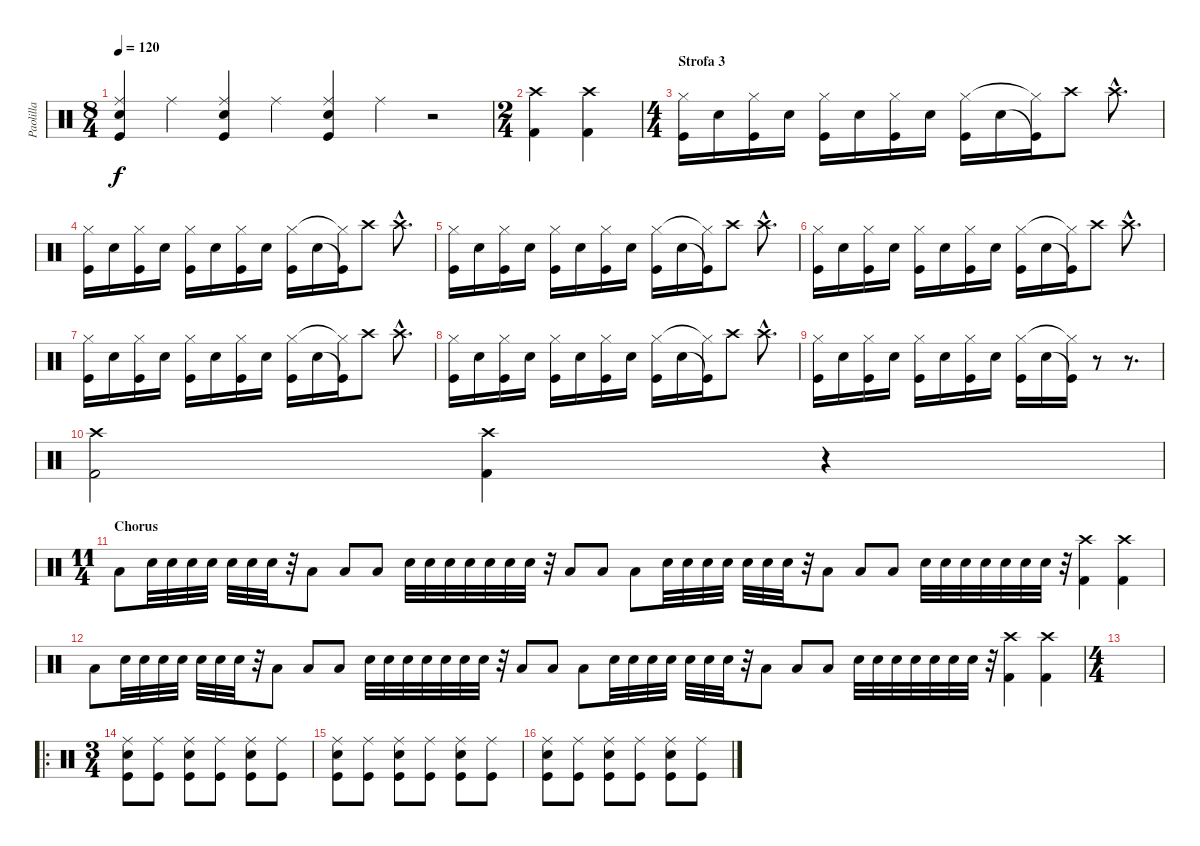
\track ("Paolilla" "Paolilla") {instrument percussion}
\staff {score}
\articulation defaults
\ts (8 4)
\tempo 120
\clef neutral
\ks c
("Snare (hit) 2" "Ride (middle)" "Kick (hit)").4{dy f} "Ride (middle)".4 ("Snare (hit) 2" "Ride (middle)" "Kick (hit)").4 "Ride (middle)".4 ("Snare (hit) 2" "Ride (middle)" "Kick (hit)").4 "Ride (middle)".4 r.2 |
\ts (2 4)
("Kick (hit) 2" "Crash high (hit)").4 ("Kick (hit) 2" "Crash high (hit)").4 |
\ts (4 4)
\section ("" "Strofa 3")
("Kick (hit)" "Hi-Hat (closed)").16 "Snare (hit) 2".16 ("Kick (hit)" "Hi-Hat (closed)").16 "Snare (hit) 2".16 ("Kick (hit)" "Hi-Hat (closed)").16 "Snare (hit) 2".16 ("Kick (hit)" "Hi-Hat (closed)").16 "Snare (hit) 2".16 ("Kick (hit)" "Hi-Hat (closed)").16 "Snare (hit) 2".16 ("Kick (hit)"{t} "Hi-Hat (closed)"{t}).16 "Crash high (hit)".8 "Crash high (hit)"{hac}.8{d} |
("Kick (hit)" "Hi-Hat (closed)").16 "Snare (hit) 2".16 ("Kick (hit)" "Hi-Hat (closed)").16 "Snare (hit) 2".16 ("Kick (hit)" "Hi-Hat (closed)").16 "Snare (hit) 2".16 ("Kick (hit)" "Hi-Hat (closed)").16 "Snare (hit) 2".16 ("Kick (hit)" "Hi-Hat (closed)").16 "Snare (hit) 2".16 ("Kick (hit)"{t} "Hi-Hat (closed)"{t}).16 "Crash high (hit)".8 "Crash high (hit)"{hac}.8{d} |
("Kick (hit)" "Hi-Hat (closed)").16 "Snare (hit) 2".16 ("Kick (hit)" "Hi-Hat (closed)").16 "Snare (hit) 2".16 ("Kick (hit)" "Hi-Hat (closed)").16 "Snare (hit) 2".16 ("Kick (hit)" "Hi-Hat (closed)").16 "Snare (hit) 2".16 ("Kick (hit)" "Hi-Hat (closed)").16 "Snare (hit) 2".16 ("Kick (hit)"{t} "Hi-Hat (closed)"{t}).16 "Crash high (hit)".8 "Crash high (hit)"{hac}.8{d} |
("Kick (hit)" "Hi-Hat (closed)").16 "Snare (hit) 2".16 ("Kick (hit)" "Hi-Hat (closed)").16 "Snare (hit) 2".16 ("Kick (hit)" "Hi-Hat (closed)").16 "Snare (hit) 2".16 ("Kick (hit)" "Hi-Hat (closed)").16 "Snare (hit) 2".16 ("Kick (hit)" "Hi-Hat (closed)").16 "Snare (hit) 2".16 ("Kick (hit)"{t} "Hi-Hat (closed)"{t}).16 "Crash high (hit)".8 "Crash high (hit)"{hac}.8{d} |
("Kick (hit)" "Hi-Hat (closed)").16 "Snare (hit) 2".16 ("Kick (hit)" "Hi-Hat (closed)").16 "Snare (hit) 2".16 ("Kick (hit)" "Hi-Hat (closed)").16 "Snare (hit) 2".16 ("Kick (hit)" "Hi-Hat (closed)").16 "Snare (hit) 2".16 ("Kick (hit)" "Hi-Hat (closed)").16 "Snare (hit) 2".16 ("Kick (hit)"{t} "Hi-Hat (closed)"{t}).16 "Crash high (hit)".8 "Crash high (hit)"{hac}.8{d} |
("Kick (hit)" "Hi-Hat (closed)").16 "Snare (hit) 2".16 ("Kick (hit)" "Hi-Hat (closed)").16 "Snare (hit) 2".16 ("Kick (hit)" "Hi-Hat (closed)").16 "Snare (hit) 2".16 ("Kick (hit)" "Hi-Hat (closed)").16 "Snare (hit) 2".16 ("Kick (hit)" "Hi-Hat (closed)").16 "Snare (hit) 2".16 ("Kick (hit)"{t} "Hi-Hat (closed)"{t}).16 "Crash high (hit)".8 "Crash high (hit)"{hac}.8{d} |
("Kick (hit)" "Hi-Hat (closed)").16 "Snare (hit) 2".16 ("Kick (hit)" "Hi-Hat (closed)").16 "Snare (hit) 2".16 ("Kick (hit)" "Hi-Hat (closed)").16 "Snare (hit) 2".16 ("Kick (hit)" "Hi-Hat (closed)").16 "Snare (hit) 2".16 ("Kick (hit)" "Hi-Hat (closed)").16 "Snare (hit) 2".16 ("Kick (hit)"{t} "Hi-Hat (closed)"{t}).16 r.8 r.8{d} |
("Crash high (hit)" "Kick (hit) 2").2 ("Crash high (hit)" "Kick (hit) 2").4 r.4 |
\ts (11 4)
\section ("" "Chorus")
"Low Tom (hit)".8 "Snare (hit) 2".32 "Snare (hit) 2".32 "Snare (hit) 2".32 "Snare (hit) 2".32 "Snare (hit) 2".32 "Snare (hit) 2".32 "Snare (hit) 2".32 r.32 "Low Tom (hit)".8 "Low Tom (hit)".8 "Low Tom (hit)".8 "Snare (hit) 2".32 "Snare (hit) 2".32 "Snare (hit) 2".32 "Snare (hit) 2".32 "Snare (hit) 2".32 "Snare (hit) 2".32 "Snare (hit) 2".32 r.32 "Low Tom (hit)".8 "Low Tom (hit)".8 "Low Tom (hit)".8 "Snare (hit) 2".32 "Snare (hit) 2".32 "Snare (hit) 2".32 "Snare (hit) 2".32 "Snare (hit) 2".32 "Snare (hit) 2".32 "Snare (hit) 2".32 r.32 "Low Tom (hit)".8 "Low Tom (hit)".8 "Low Tom (hit)".8 "Snare (hit) 2".32 "Snare (hit) 2".32 "Snare (hit) 2".32 "Snare (hit) 2".32 "Snare (hit) 2".32 "Snare (hit) 2".32 "Snare (hit) 2".32 r.32 ("Crash high (hit)" "Kick (hit) 2").4 ("Crash high (hit)" "Kick (hit) 2").4 |
"Low Tom (hit)".8 "Snare (hit) 2".32 "Snare (hit) 2".32 "Snare (hit) 2".32 "Snare (hit) 2".32 "Snare (hit) 2".32 "Snare (hit) 2".32 "Snare (hit) 2".32 r.32 "Low Tom (hit)".8 "Low Tom (hit)".8 "Low Tom (hit)".8 "Snare (hit) 2".32 "Snare (hit) 2".32 "Snare (hit) 2".32 "Snare (hit) 2".32 "Snare (hit) 2".32 "Snare (hit) 2".32 "Snare (hit) 2".32 r.32 "Low Tom (hit)".8 "Low Tom (hit)".8 "Low Tom (hit)".8 "Snare (hit) 2".32 "Snare (hit) 2".32 "Snare (hit) 2".32 "Snare (hit) 2".32 "Snare (hit) 2".32 "Snare (hit) 2".32 "Snare (hit) 2".32 r.32 "Low Tom (hit)".8 "Low Tom (hit)".8 "Low Tom (hit)".8 "Snare (hit) 2".32 "Snare (hit) 2".32 "Snare (hit) 2".32 "Snare (hit) 2".32 "Snare (hit) 2".32 "Snare (hit) 2".32 "Snare (hit) 2".32 r.32 ("Crash high (hit)" "Kick (hit) 2").4 ("Crash high (hit)" "Kick (hit) 2").4 |
\ts (4 4)
|
\ro
\ts (3 4)
("Ride (middle)" "Snare (hit) 2" "Kick (hit)").8 ("Ride (middle)" "Kick (hit)").8 ("Ride (middle)" "Snare (hit) 2" "Kick (hit)").8 ("Ride (middle)" "Kick (hit)").8 ("Ride (middle)" "Snare (hit) 2" "Kick (hit)").8 ("Ride (middle)" "Kick (hit)").8 |
("Ride (middle)" "Snare (hit) 2" "Kick (hit)").8 ("Ride (middle)" "Kick (hit)").8 ("Ride (middle)" "Snare (hit) 2" "Kick (hit)").8 ("Ride (middle)" "Kick (hit)").8 ("Ride (middle)" "Snare (hit) 2" "Kick (hit)").8 ("Ride (middle)" "Kick (hit)").8 |
("Ride (middle)" "Snare (hit) 2" "Kick (hit)").8 ("Ride (middle)" "Kick (hit)").8 ("Ride (middle)" "Snare (hit) 2" "Kick (hit)").8 ("Ride (middle)" "Kick (hit)").8 ("Ride (middle)" "Snare (hit) 2" "Kick (hit)").8 ("Ride (middle)" "Kick (hit)").8
